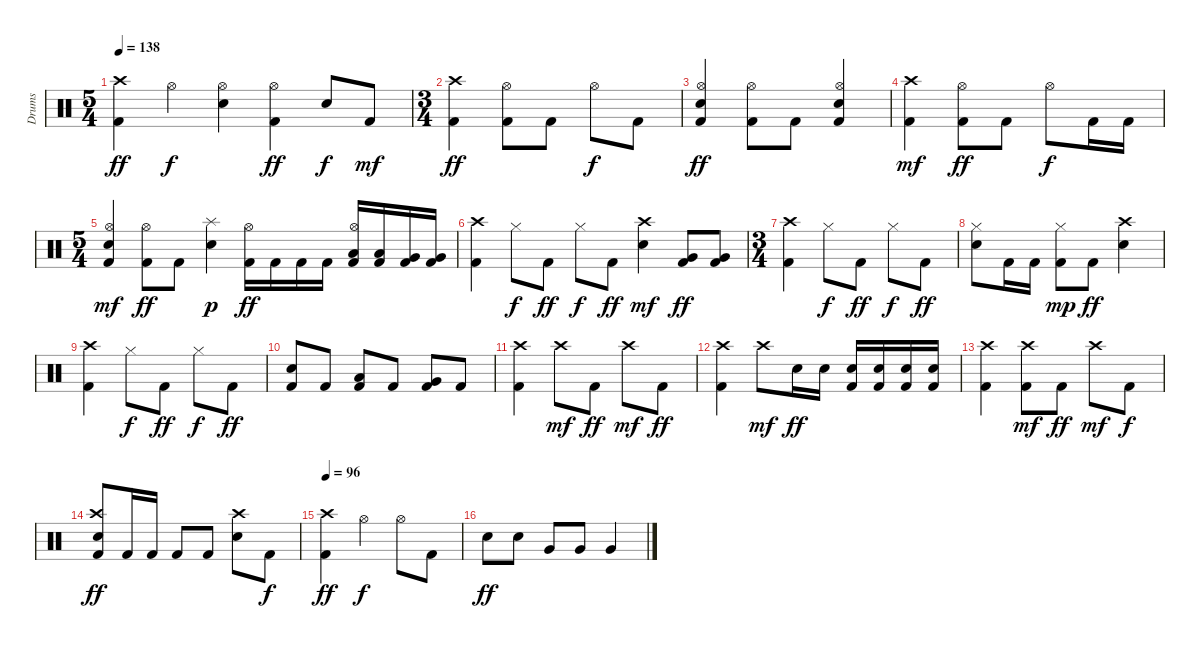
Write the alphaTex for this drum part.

\track ("Drums" "Drums") {instrument percussion}
\staff {score}
\articulation defaults
\ts (5 4)
\tempo 138
\clef neutral
\ks c
("Kick (hit) 2" "Crash high (hit)").4{dy ff} "Hi-Hat (open)".4{dy f} ("Electric Snare (hit)" "Hi-Hat (open)").4 ("Kick (hit) 2" "Hi-Hat (open)").4{dy ff} "Electric Snare (hit)".8{dy f} "Kick (hit) 2".8{dy mf} |
\ts (3 4)
("Kick (hit) 2" "Crash high (hit)").4{dy ff} ("Kick (hit) 2" "Hi-Hat (open)").8 "Kick (hit) 2".8 "Hi-Hat (open)".8{dy f} "Kick (hit) 2".8 |
("Kick (hit) 2" "Electric Snare (hit)" "Hi-Hat (open)").4{dy ff} ("Kick (hit) 2" "Hi-Hat (open)").8 "Kick (hit) 2".8 ("Kick (hit) 2" "Electric Snare (hit)" "Hi-Hat (open)").4 |
("Kick (hit) 2" "Crash high (hit)").4{dy mf} ("Kick (hit) 2" "Hi-Hat (open)").8{dy ff} "Kick (hit) 2".8 "Hi-Hat (open)".8{dy f} "Kick (hit) 2".16 "Kick (hit) 2".16 |
\ts (5 4)
("Kick (hit) 2" "Electric Snare (hit)" "Hi-Hat (open)").4{dy mf} ("Kick (hit) 2" "Hi-Hat (open)").8{dy ff} "Kick (hit) 2".8 ("Electric Snare (hit)" "Splash (hit)").4{dy p} ("Kick (hit) 2" "Hi-Hat (open)").16{dy ff} "Kick (hit) 2".16 "Kick (hit) 2".16 "Kick (hit) 2".16 ("Kick (hit) 2" "Low Tom (hit)" "Hi-Hat (open)").16 ("Kick (hit) 2" "Low Tom (hit)").16 ("Kick (hit) 2" "Very Low Tom (hit)").16 ("Kick (hit) 2" "Very Low Tom (hit)").16 |
("Kick (hit) 2" "Crash high (hit)").4 "Hi-Hat (closed)".8{dy f} "Kick (hit) 2".8{dy ff} "Hi-Hat (closed)".8{dy f} "Kick (hit) 2".8{dy ff} ("Electric Snare (hit)" "Crash high (hit)").4{dy mf} ("Kick (hit) 2" "Very Low Tom (hit)").8{dy ff} ("Kick (hit) 2" "Very Low Tom (hit)").8 |
\ts (3 4)
("Kick (hit) 2" "Crash high (hit)").4 "Hi-Hat (closed)".8{dy f} "Kick (hit) 2".8{dy ff} "Hi-Hat (closed)".8{dy f} "Kick (hit) 2".8{dy ff} |
("Electric Snare (hit)" "Hi-Hat (closed)").8 "Kick (hit) 2".16 "Kick (hit) 2".16 ("Kick (hit) 2" "Hi-Hat (closed)").8{dy mp} "Kick (hit) 2".8{dy ff} ("Electric Snare (hit)" "Crash high (hit)").4 |
("Kick (hit) 2" "Crash high (hit)").4 "Hi-Hat (closed)".8{dy f} "Kick (hit) 2".8{dy ff} "Hi-Hat (closed)".8{dy f} "Kick (hit) 2".8{dy ff} |
("Kick (hit) 2" "Electric Snare (hit)").8 "Kick (hit) 2".8 ("Kick (hit) 2" "Low Tom (hit)").8 "Kick (hit) 2".8 ("Kick (hit) 2" "Very Low Tom (hit)").8 "Kick (hit) 2".8 |
("Kick (hit) 2" "Crash high (hit)").4 "Crash high (hit)".8{dy mf} "Kick (hit) 2".8{dy ff} "Crash high (hit)".8{dy mf} "Kick (hit) 2".8{dy ff} |
("Kick (hit) 2" "Crash high (hit)").4 "Crash high (hit)".8{dy mf} "Electric Snare (hit)".16{dy ff} "Electric Snare (hit)".16 ("Kick (hit) 2" "Electric Snare (hit)").16 ("Kick (hit) 2" "Electric Snare (hit)").16 ("Kick (hit) 2" "Electric Snare (hit)").16 ("Kick (hit) 2" "Electric Snare (hit)").16 |
("Kick (hit) 2" "Crash high (hit)").4 ("Kick (hit) 2" "Crash high (hit)").8{dy mf} "Kick (hit) 2".8{dy ff} "Crash high (hit)".8{dy mf} "Kick (hit) 2".8{dy f} |
("Kick (hit) 2" "Electric Snare (hit)" "Crash high (hit)").8{dy ff} "Kick (hit) 2".16 "Kick (hit) 2".16 "Kick (hit) 2".8 "Kick (hit) 2".8 ("Electric Snare (hit)" "Crash high (hit)").8 "Kick (hit) 2".8{dy f} |
\tempo 96
("Kick (hit) 2" "Crash high (hit)").4{dy ff} "Hi-Hat (open)".4{dy f} "Hi-Hat (open)".8 "Kick (hit) 2".8 |
"Electric Snare (hit)".8{dy ff} "Electric Snare (hit)".8 "Very Low Tom (hit)".8 "Very Low Tom (hit)".8 "Very Low Tom (hit)".4
